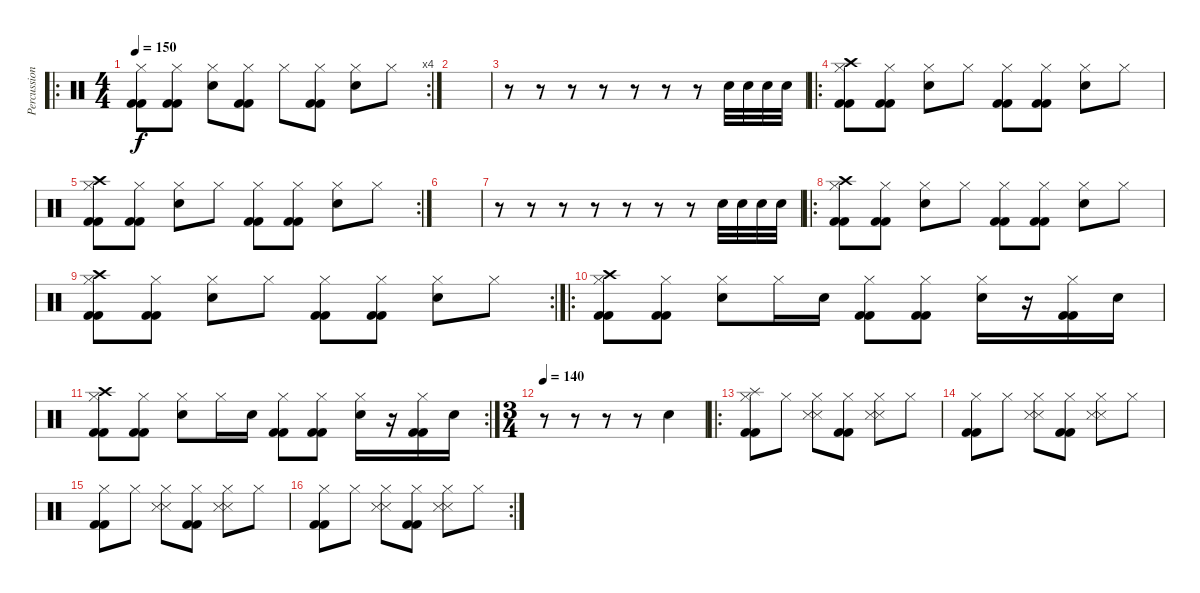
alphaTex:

\track ("Percussion" "Percussion") {instrument percussion}
\staff {score}
\articulation defaults
\ro
\rc 4
\ts (4 4)
\tempo 150
\clef neutral
\ks c
("Hi-Hat (closed)" "Kick (hit) 2" "Kick (hit) 2").8{dy f} ("Hi-Hat (closed)" "Kick (hit) 2" "Kick (hit) 2").8 ("Hi-Hat (closed)" "Snare (hit) 2").8 ("Hi-Hat (closed)" "Kick (hit) 2" "Kick (hit) 2").8 "Hi-Hat (closed)".8 ("Hi-Hat (closed)" "Kick (hit) 2" "Kick (hit) 2").8 ("Hi-Hat (closed)" "Snare (hit) 2").8 "Hi-Hat (closed)".8 |
|
r.8 r.8 r.8 r.8 r.8 r.8 r.8 "Snare (hit) 2".32 "Snare (hit) 2".32 "Snare (hit) 2".32 "Snare (hit) 2".32 |
\ro
("Hi-Hat (closed)" "Crash high (hit)" "Kick (hit) 2" "Kick (hit) 2").8 ("Hi-Hat (closed)" "Kick (hit) 2" "Kick (hit) 2").8 ("Hi-Hat (closed)" "Snare (hit) 2").8 "Hi-Hat (closed)".8 ("Hi-Hat (closed)" "Kick (hit) 2" "Kick (hit) 2").8 ("Hi-Hat (closed)" "Kick (hit) 2" "Kick (hit) 2").8 ("Hi-Hat (closed)" "Snare (hit) 2").8 "Hi-Hat (closed)".8 |
\rc 2
("Hi-Hat (closed)" "Crash high (hit)" "Kick (hit) 2" "Kick (hit) 2").8 ("Hi-Hat (closed)" "Kick (hit) 2" "Kick (hit) 2").8 ("Hi-Hat (closed)" "Snare (hit) 2").8 "Hi-Hat (closed)".8 ("Hi-Hat (closed)" "Kick (hit) 2" "Kick (hit) 2").8 ("Hi-Hat (closed)" "Kick (hit) 2" "Kick (hit) 2").8 ("Hi-Hat (closed)" "Snare (hit) 2").8 "Hi-Hat (closed)".8 |
|
r.8 r.8 r.8 r.8 r.8 r.8 r.8 "Snare (hit) 2".32 "Snare (hit) 2".32 "Snare (hit) 2".32 "Snare (hit) 2".32 |
\ro
("Hi-Hat (closed)" "Crash high (hit)" "Kick (hit) 2" "Kick (hit) 2").8 ("Hi-Hat (closed)" "Kick (hit) 2" "Kick (hit) 2").8 ("Hi-Hat (closed)" "Snare (hit) 2").8 "Hi-Hat (closed)".8 ("Hi-Hat (closed)" "Kick (hit) 2" "Kick (hit) 2").8 ("Hi-Hat (closed)" "Kick (hit) 2" "Kick (hit) 2").8 ("Hi-Hat (closed)" "Snare (hit) 2").8 "Hi-Hat (closed)".8 |
\rc 2
("Hi-Hat (closed)" "Crash high (hit)" "Kick (hit) 2" "Kick (hit) 2").8 ("Hi-Hat (closed)" "Kick (hit) 2" "Kick (hit) 2").8 ("Hi-Hat (closed)" "Snare (hit) 2").8 "Hi-Hat (closed)".8 ("Hi-Hat (closed)" "Kick (hit) 2" "Kick (hit) 2").8 ("Hi-Hat (closed)" "Kick (hit) 2" "Kick (hit) 2").8 ("Hi-Hat (closed)" "Snare (hit) 2").8 "Hi-Hat (closed)".8 |
\ro
("Hi-Hat (closed)" "Crash high (hit)" "Kick (hit) 2" "Kick (hit) 2").8 ("Hi-Hat (closed)" "Kick (hit) 2" "Kick (hit) 2").8 ("Hi-Hat (closed)" "Snare (hit) 2").8 "Hi-Hat (closed)".16 "Snare (hit) 2".16 ("Hi-Hat (closed)" "Kick (hit) 2" "Kick (hit) 2").8 ("Hi-Hat (closed)" "Kick (hit) 2" "Kick (hit) 2").8 ("Hi-Hat (closed)" "Snare (hit) 2").16 r.16 ("Hi-Hat (closed)" "Kick (hit) 2" "Kick (hit) 2").16 "Snare (hit) 2".16 |
\rc 2
("Hi-Hat (closed)" "Crash high (hit)" "Kick (hit) 2" "Kick (hit) 2").8 ("Hi-Hat (closed)" "Kick (hit) 2" "Kick (hit) 2").8 ("Hi-Hat (closed)" "Snare (hit) 2").8 "Hi-Hat (closed)".16 "Snare (hit) 2".16 ("Hi-Hat (closed)" "Kick (hit) 2" "Kick (hit) 2").8 ("Hi-Hat (closed)" "Kick (hit) 2" "Kick (hit) 2").8 ("Hi-Hat (closed)" "Snare (hit) 2").16 r.16 ("Hi-Hat (closed)" "Kick (hit) 2" "Kick (hit) 2").16 "Snare (hit) 2".16 |
\ts (3 4)
\tempo 140
r.8 r.8 r.8 r.8 "Snare (hit) 2".4 |
\ro
("Hi-Hat (closed)" "Splash (hit)" "Kick (hit) 2" "Kick (hit) 2").8 "Hi-Hat (closed)".8 ("Hi-Hat (closed)" "Snare (side stick) 3" "Snare (side stick) 3").8 ("Hi-Hat (closed)" "Kick (hit) 2" "Kick (hit) 2").8 ("Hi-Hat (closed)" "Snare (side stick) 3" "Snare (side stick) 3").8 "Hi-Hat (closed)".8 |
("Hi-Hat (closed)" "Kick (hit) 2" "Kick (hit) 2").8 "Hi-Hat (closed)".8 ("Hi-Hat (closed)" "Snare (side stick) 3" "Snare (side stick) 3").8 ("Hi-Hat (closed)" "Kick (hit) 2" "Kick (hit) 2").8 ("Hi-Hat (closed)" "Snare (side stick) 3" "Snare (side stick) 3").8 "Hi-Hat (closed)".8 |
("Hi-Hat (closed)" "Kick (hit) 2" "Kick (hit) 2").8 "Hi-Hat (closed)".8 ("Hi-Hat (closed)" "Snare (side stick) 3" "Snare (side stick) 3").8 ("Hi-Hat (closed)" "Kick (hit) 2" "Kick (hit) 2").8 ("Hi-Hat (closed)" "Snare (side stick) 3" "Snare (side stick) 3").8 "Hi-Hat (closed)".8 |
\rc 2
("Hi-Hat (closed)" "Kick (hit) 2" "Kick (hit) 2").8 "Hi-Hat (closed)".8 ("Hi-Hat (closed)" "Snare (side stick) 3" "Snare (side stick) 3").8 ("Hi-Hat (closed)" "Kick (hit) 2" "Kick (hit) 2").8 ("Hi-Hat (closed)" "Snare (side stick) 3" "Snare (side stick) 3").8 "Hi-Hat (closed)".8
